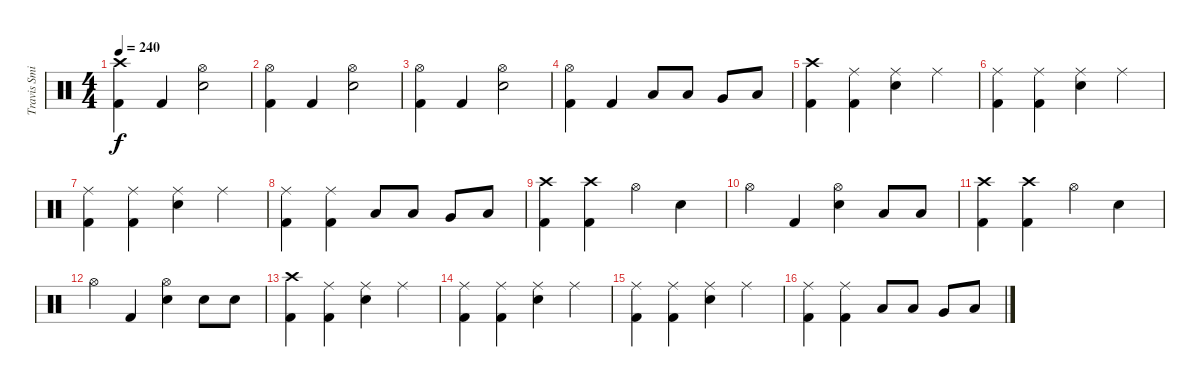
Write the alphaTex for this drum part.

\track ("Travis Smith (Drums)" "Travis Smi") {instrument percussion}
\staff {score}
\articulation defaults
\ts (4 4)
\tempo 240
\clef neutral
\ks c
("Kick (hit) 2" "Crash high (hit)").4{dy f} "Kick (hit) 2".4 ("Snare (hit) 2" "Hi-Hat (open)").2 |
("Kick (hit) 2" "Hi-Hat (open)").4 "Kick (hit) 2".4 ("Snare (hit) 2" "Hi-Hat (open)").2 |
("Kick (hit) 2" "Hi-Hat (open)").4 "Kick (hit) 2".4 ("Snare (hit) 2" "Hi-Hat (open)").2 |
("Kick (hit) 2" "Hi-Hat (open)").4 "Kick (hit) 2".4 "Low Tom (hit)".8 "Low Tom (hit)".8 "Very Low Tom (hit)".8 "Low Floor Tom (hit)".8 |
("Kick (hit) 2" "Crash high (hit)").4 ("Kick (hit) 2" "Ride (middle)").4 ("Snare (hit) 2" "Ride (middle)").4 "Ride (middle)".4 |
("Kick (hit) 2" "Ride (middle)").4 ("Kick (hit) 2" "Ride (middle)").4 ("Snare (hit) 2" "Ride (middle)").4 "Ride (middle)".4 |
("Kick (hit) 2" "Ride (middle)").4 ("Kick (hit) 2" "Ride (middle)").4 ("Snare (hit) 2" "Ride (middle)").4 "Ride (middle)".4 |
("Kick (hit) 2" "Ride (middle)").4 ("Kick (hit) 2" "Ride (middle)").4 "Low Tom (hit)".8 "Low Tom (hit)".8 "Very Low Tom (hit)".8 "Low Floor Tom (hit)".8 |
("Kick (hit) 2" "Crash high (hit)").4 ("Kick (hit) 2" "Crash high (hit)").4 "Hi-Hat (open)".4 "Snare (hit) 2".4 |
"Hi-Hat (open)".4 "Kick (hit) 2".4 ("Snare (hit) 2" "Hi-Hat (open)").4 "Low Tom (hit)".8 "Low Tom (hit)".8 |
("Kick (hit) 2" "Crash high (hit)").4 ("Kick (hit) 2" "Crash high (hit)").4 "Hi-Hat (open)".4 "Snare (hit) 2".4 |
"Hi-Hat (open)".4 "Kick (hit) 2".4 ("Snare (hit) 2" "Hi-Hat (open)").4 "Snare (hit) 2".8 "Snare (hit) 2".8 |
("Kick (hit) 2" "Crash high (hit)").4 ("Kick (hit) 2" "Ride (middle)").4 ("Snare (hit) 2" "Ride (middle)").4 "Ride (middle)".4 |
("Kick (hit) 2" "Ride (middle)").4 ("Kick (hit) 2" "Ride (middle)").4 ("Snare (hit) 2" "Ride (middle)").4 "Ride (middle)".4 |
("Kick (hit) 2" "Ride (middle)").4 ("Kick (hit) 2" "Ride (middle)").4 ("Snare (hit) 2" "Ride (middle)").4 "Ride (middle)".4 |
("Kick (hit) 2" "Ride (middle)").4 ("Kick (hit) 2" "Ride (middle)").4 "Low Tom (hit)".8 "Low Tom (hit)".8 "Very Low Tom (hit)".8 "Low Floor Tom (hit)".8
